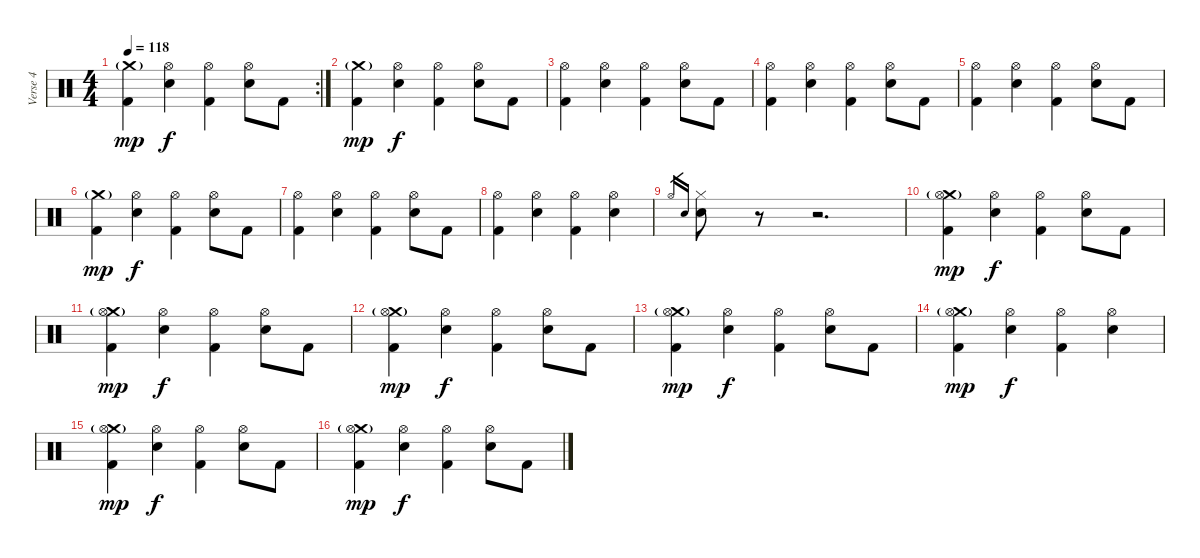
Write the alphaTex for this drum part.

\track ("Verse 4" "Verse 4") {instrument percussion}
\staff {score}
\articulation defaults
\rc 2
\ts (4 4)
\tempo 118
\clef neutral
\ks c
("Crash medium (hit)"{g} "Kick (hit) 2").4{dy mp} ("Hi-Hat (open)" "Electric Snare (hit)").4{dy f} ("Hi-Hat (open)" "Kick (hit) 2").4 ("Hi-Hat (open)" "Electric Snare (hit)").8 "Kick (hit) 2".8 |
("Crash medium (hit)"{g} "Kick (hit) 2").4{dy mp} ("Hi-Hat (open)" "Electric Snare (hit)").4{dy f} ("Hi-Hat (open)" "Kick (hit) 2").4 ("Hi-Hat (open)" "Electric Snare (hit)").8 "Kick (hit) 2".8 |
("Hi-Hat (open)" "Kick (hit) 2").4 ("Hi-Hat (open)" "Electric Snare (hit)").4 ("Hi-Hat (open)" "Kick (hit) 2").4 ("Hi-Hat (open)" "Electric Snare (hit)").8 "Kick (hit) 2".8 |
("Hi-Hat (open)" "Kick (hit) 2").4 ("Hi-Hat (open)" "Electric Snare (hit)").4 ("Hi-Hat (open)" "Kick (hit) 2").4 ("Hi-Hat (open)" "Electric Snare (hit)").8 "Kick (hit) 2".8 |
("Hi-Hat (open)" "Kick (hit) 2").4 ("Hi-Hat (open)" "Electric Snare (hit)").4 ("Hi-Hat (open)" "Kick (hit) 2").4 ("Hi-Hat (open)" "Electric Snare (hit)").8 "Kick (hit) 2".8 |
("Crash medium (hit)"{g} "Kick (hit) 2").4{dy mp} ("Hi-Hat (open)" "Electric Snare (hit)").4{dy f} ("Hi-Hat (open)" "Kick (hit) 2").4 ("Hi-Hat (open)" "Electric Snare (hit)").8 "Kick (hit) 2".8 |
("Hi-Hat (open)" "Kick (hit) 2").4 ("Hi-Hat (open)" "Electric Snare (hit)").4 ("Hi-Hat (open)" "Kick (hit) 2").4 ("Hi-Hat (open)" "Electric Snare (hit)").8 "Kick (hit) 2".8 |
("Hi-Hat (open)" "Kick (hit) 2").4 ("Hi-Hat (open)" "Electric Snare (hit)").4 ("Hi-Hat (open)" "Kick (hit) 2").4 ("Hi-Hat (open)" "Electric Snare (hit)").4 |
"Hi-Hat (open)".16{gr} "Electric Snare (hit)".16{gr} ("Hi-Hat (closed)" "Electric Snare (hit)").8 r.8 r.2{d} |
("Crash medium (hit)"{g} "Hi-Hat (open)" "Kick (hit) 2").4{dy mp} ("Hi-Hat (open)" "Electric Snare (hit)").4{dy f} ("Hi-Hat (open)" "Kick (hit) 2").4 ("Hi-Hat (open)" "Electric Snare (hit)").8 "Kick (hit) 2".8 |
("Crash medium (hit)"{g} "Hi-Hat (open)" "Kick (hit) 2").4{dy mp} ("Hi-Hat (open)" "Electric Snare (hit)").4{dy f} ("Hi-Hat (open)" "Kick (hit) 2").4 ("Hi-Hat (open)" "Electric Snare (hit)").8 "Kick (hit) 2".8 |
("Crash medium (hit)"{g} "Hi-Hat (open)" "Kick (hit) 2").4{dy mp} ("Hi-Hat (open)" "Electric Snare (hit)").4{dy f} ("Hi-Hat (open)" "Kick (hit) 2").4 ("Hi-Hat (open)" "Electric Snare (hit)").8 "Kick (hit) 2".8 |
("Crash medium (hit)"{g} "Hi-Hat (open)" "Kick (hit) 2").4{dy mp} ("Hi-Hat (open)" "Electric Snare (hit)").4{dy f} ("Hi-Hat (open)" "Kick (hit) 2").4 ("Hi-Hat (open)" "Electric Snare (hit)").8 "Kick (hit) 2".8 |
("Crash medium (hit)"{g} "Hi-Hat (open)" "Kick (hit) 2").4{dy mp} ("Hi-Hat (open)" "Electric Snare (hit)").4{dy f} ("Hi-Hat (open)" "Kick (hit) 2").4 ("Hi-Hat (open)" "Electric Snare (hit)").4 |
("Crash medium (hit)"{g} "Hi-Hat (open)" "Kick (hit) 2").4{dy mp} ("Hi-Hat (open)" "Electric Snare (hit)").4{dy f} ("Hi-Hat (open)" "Kick (hit) 2").4 ("Hi-Hat (open)" "Electric Snare (hit)").8 "Kick (hit) 2".8 |
("Crash medium (hit)"{g} "Hi-Hat (open)" "Kick (hit) 2").4{dy mp} ("Hi-Hat (open)" "Electric Snare (hit)").4{dy f} ("Hi-Hat (open)" "Kick (hit) 2").4 ("Hi-Hat (open)" "Electric Snare (hit)").8 "Kick (hit) 2".8
